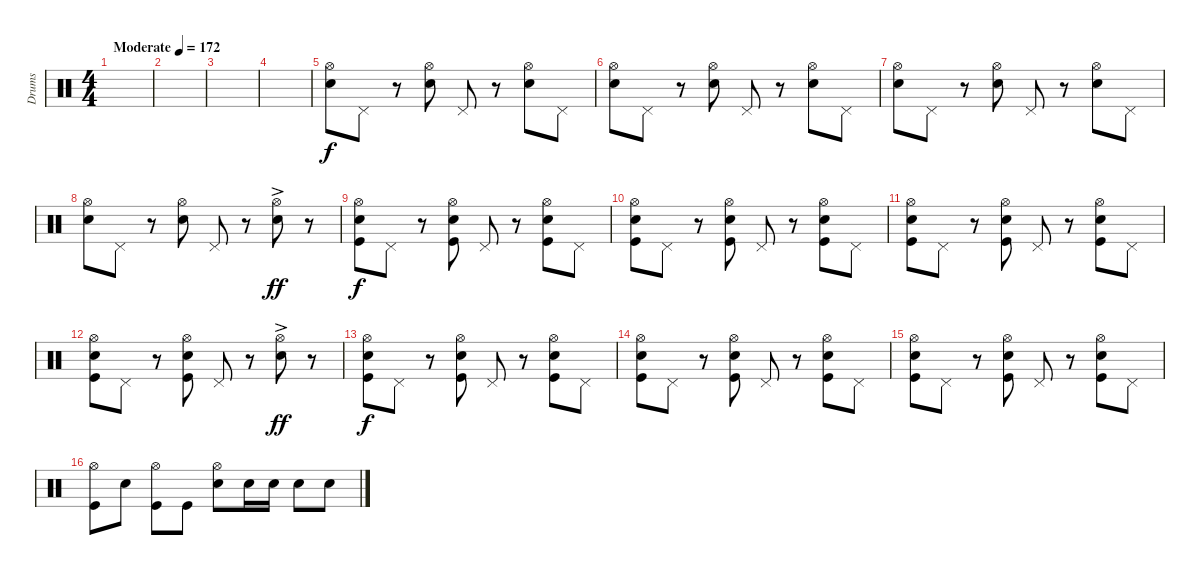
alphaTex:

\track ("Drums" "Drums") {instrument percussion}
\staff {score}
\articulation defaults
\ts (4 4)
\tempo (172 "Moderate")
\clef neutral
\ks c
|
|
|
|
("Hi-Hat (open)" "Snare (hit) 2").8 "Pedal Hi-Hat (hit)".8 r.8 ("Hi-Hat (open)" "Snare (hit) 2").8 "Pedal Hi-Hat (hit)".8 r.8 ("Hi-Hat (open)" "Snare (hit) 2").8 "Pedal Hi-Hat (hit)".8 |
("Hi-Hat (open)" "Snare (hit) 2").8 "Pedal Hi-Hat (hit)".8 r.8 ("Hi-Hat (open)" "Snare (hit) 2").8 "Pedal Hi-Hat (hit)".8 r.8 ("Hi-Hat (open)" "Snare (hit) 2").8 "Pedal Hi-Hat (hit)".8 |
("Hi-Hat (open)" "Snare (hit) 2").8 "Pedal Hi-Hat (hit)".8 r.8 ("Hi-Hat (open)" "Snare (hit) 2").8 "Pedal Hi-Hat (hit)".8 r.8 ("Hi-Hat (open)" "Snare (hit) 2").8 "Pedal Hi-Hat (hit)".8 |
("Hi-Hat (open)" "Snare (hit) 2").8 "Pedal Hi-Hat (hit)".8 r.8 ("Hi-Hat (open)" "Snare (hit) 2").8 "Pedal Hi-Hat (hit)".8 r.8 ("Hi-Hat (open)"{ac} "Snare (hit) 2").8{dy ff} r.8 |
("Hi-Hat (open)" "Snare (hit) 2" "Kick (hit)").8{dy f} "Pedal Hi-Hat (hit)".8 r.8 ("Hi-Hat (open)" "Snare (hit) 2" "Kick (hit)").8 "Pedal Hi-Hat (hit)".8 r.8 ("Hi-Hat (open)" "Snare (hit) 2" "Kick (hit)").8 "Pedal Hi-Hat (hit)".8 |
("Hi-Hat (open)" "Snare (hit) 2" "Kick (hit)").8 "Pedal Hi-Hat (hit)".8 r.8 ("Hi-Hat (open)" "Snare (hit) 2" "Kick (hit)").8 "Pedal Hi-Hat (hit)".8 r.8 ("Hi-Hat (open)" "Snare (hit) 2" "Kick (hit)").8 "Pedal Hi-Hat (hit)".8 |
("Hi-Hat (open)" "Snare (hit) 2" "Kick (hit)").8 "Pedal Hi-Hat (hit)".8 r.8 ("Hi-Hat (open)" "Snare (hit) 2" "Kick (hit)").8 "Pedal Hi-Hat (hit)".8 r.8 ("Hi-Hat (open)" "Snare (hit) 2" "Kick (hit)").8 "Pedal Hi-Hat (hit)".8 |
("Hi-Hat (open)" "Snare (hit) 2" "Kick (hit)").8 "Pedal Hi-Hat (hit)".8 r.8 ("Hi-Hat (open)" "Snare (hit) 2" "Kick (hit)").8 "Pedal Hi-Hat (hit)".8 r.8 ("Hi-Hat (open)"{ac} "Snare (hit) 2").8{dy ff} r.8 |
("Hi-Hat (open)" "Snare (hit) 2" "Kick (hit)").8{dy f} "Pedal Hi-Hat (hit)".8 r.8 ("Hi-Hat (open)" "Snare (hit) 2" "Kick (hit)").8 "Pedal Hi-Hat (hit)".8 r.8 ("Hi-Hat (open)" "Snare (hit) 2" "Kick (hit)").8 "Pedal Hi-Hat (hit)".8 |
("Hi-Hat (open)" "Snare (hit) 2" "Kick (hit)").8 "Pedal Hi-Hat (hit)".8 r.8 ("Hi-Hat (open)" "Snare (hit) 2" "Kick (hit)").8 "Pedal Hi-Hat (hit)".8 r.8 ("Hi-Hat (open)" "Snare (hit) 2" "Kick (hit)").8 "Pedal Hi-Hat (hit)".8 |
("Hi-Hat (open)" "Snare (hit) 2" "Kick (hit)").8 "Pedal Hi-Hat (hit)".8 r.8 ("Hi-Hat (open)" "Snare (hit) 2" "Kick (hit)").8 "Pedal Hi-Hat (hit)".8 r.8 ("Hi-Hat (open)" "Snare (hit) 2" "Kick (hit)").8 "Pedal Hi-Hat (hit)".8 |
("Hi-Hat (open)" "Kick (hit)").8 "Snare (hit) 2".8 ("Hi-Hat (open)" "Kick (hit)").8 "Kick (hit)".8 ("Hi-Hat (open)" "Snare (hit) 2").8 "Snare (hit) 2".16 "Snare (hit) 2".16 "Snare (hit) 2".8 "Snare (hit) 2".8
